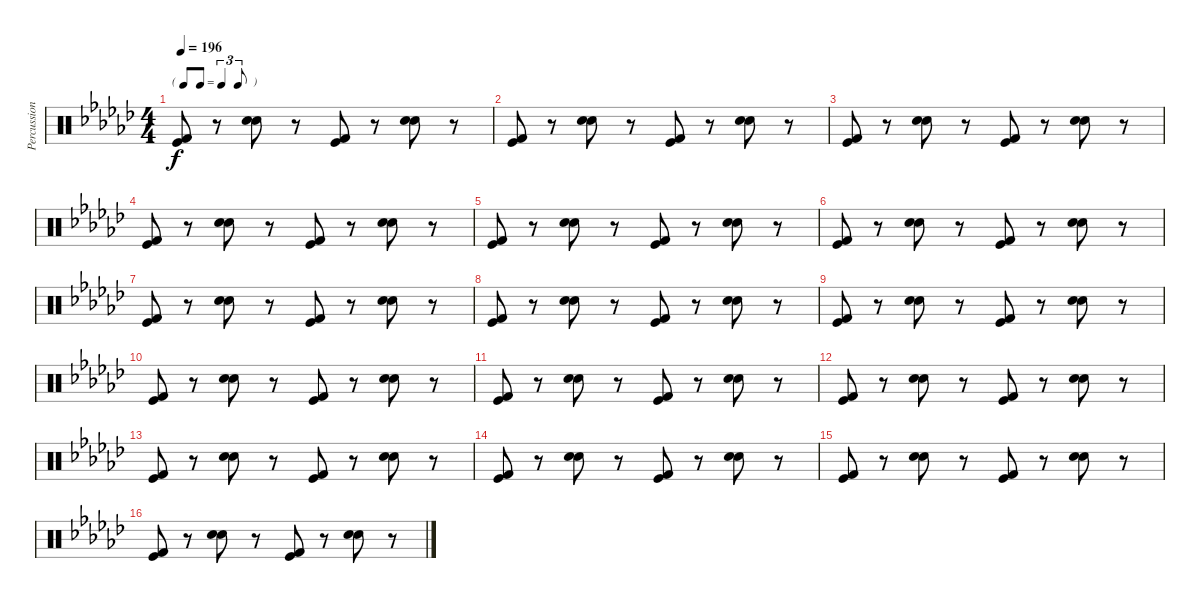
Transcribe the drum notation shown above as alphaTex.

\track ("Percussions" "Percussion") {instrument percussion}
\staff {score}
\articulation defaults
\ts (4 4)
\tf triplet8th
\tempo 196
\clef neutral
\ks gb
("Kick (hit) 2" "Kick (hit)").8{dy f} r.8 ("Snare (hit) 2" "Electric Snare (hit)").8 r.8 ("Kick (hit) 2" "Kick (hit)").8 r.8 ("Snare (hit) 2" "Electric Snare (hit)").8 r.8 |
("Kick (hit) 2" "Kick (hit)").8 r.8 ("Snare (hit) 2" "Electric Snare (hit)").8 r.8 ("Kick (hit) 2" "Kick (hit)").8 r.8 ("Snare (hit) 2" "Electric Snare (hit)").8 r.8 |
("Kick (hit) 2" "Kick (hit)").8 r.8 ("Snare (hit) 2" "Electric Snare (hit)").8 r.8 ("Kick (hit) 2" "Kick (hit)").8 r.8 ("Snare (hit) 2" "Electric Snare (hit)").8 r.8 |
("Kick (hit) 2" "Kick (hit)").8 r.8 ("Snare (hit) 2" "Electric Snare (hit)").8 r.8 ("Kick (hit) 2" "Kick (hit)").8 r.8 ("Snare (hit) 2" "Electric Snare (hit)").8 r.8 |
("Kick (hit) 2" "Kick (hit)").8 r.8 ("Snare (hit) 2" "Electric Snare (hit)").8 r.8 ("Kick (hit) 2" "Kick (hit)").8 r.8 ("Snare (hit) 2" "Electric Snare (hit)").8 r.8 |
("Kick (hit) 2" "Kick (hit)").8 r.8 ("Snare (hit) 2" "Electric Snare (hit)").8 r.8 ("Kick (hit) 2" "Kick (hit)").8 r.8 ("Snare (hit) 2" "Electric Snare (hit)").8 r.8 |
("Kick (hit) 2" "Kick (hit)").8 r.8 ("Snare (hit) 2" "Electric Snare (hit)").8 r.8 ("Kick (hit) 2" "Kick (hit)").8 r.8 ("Snare (hit) 2" "Electric Snare (hit)").8 r.8 |
("Kick (hit) 2" "Kick (hit)").8 r.8 ("Snare (hit) 2" "Electric Snare (hit)").8 r.8 ("Kick (hit) 2" "Kick (hit)").8 r.8 ("Snare (hit) 2" "Electric Snare (hit)").8 r.8 |
("Kick (hit) 2" "Kick (hit)").8 r.8 ("Snare (hit) 2" "Electric Snare (hit)").8 r.8 ("Kick (hit) 2" "Kick (hit)").8 r.8 ("Snare (hit) 2" "Electric Snare (hit)").8 r.8 |
("Kick (hit) 2" "Kick (hit)").8 r.8 ("Snare (hit) 2" "Electric Snare (hit)").8 r.8 ("Kick (hit) 2" "Kick (hit)").8 r.8 ("Snare (hit) 2" "Electric Snare (hit)").8 r.8 |
("Kick (hit) 2" "Kick (hit)").8 r.8 ("Snare (hit) 2" "Electric Snare (hit)").8 r.8 ("Kick (hit) 2" "Kick (hit)").8 r.8 ("Snare (hit) 2" "Electric Snare (hit)").8 r.8 |
("Kick (hit) 2" "Kick (hit)").8 r.8 ("Snare (hit) 2" "Electric Snare (hit)").8 r.8 ("Kick (hit) 2" "Kick (hit)").8 r.8 ("Snare (hit) 2" "Electric Snare (hit)").8 r.8 |
("Kick (hit) 2" "Kick (hit)").8 r.8 ("Snare (hit) 2" "Electric Snare (hit)").8 r.8 ("Kick (hit) 2" "Kick (hit)").8 r.8 ("Snare (hit) 2" "Electric Snare (hit)").8 r.8 |
("Kick (hit) 2" "Kick (hit)").8 r.8 ("Snare (hit) 2" "Electric Snare (hit)").8 r.8 ("Kick (hit) 2" "Kick (hit)").8 r.8 ("Snare (hit) 2" "Electric Snare (hit)").8 r.8 |
("Kick (hit) 2" "Kick (hit)").8 r.8 ("Snare (hit) 2" "Electric Snare (hit)").8 r.8 ("Kick (hit) 2" "Kick (hit)").8 r.8 ("Snare (hit) 2" "Electric Snare (hit)").8 r.8 |
("Kick (hit) 2" "Kick (hit)").8 r.8 ("Snare (hit) 2" "Electric Snare (hit)").8 r.8 ("Kick (hit) 2" "Kick (hit)").8 r.8 ("Snare (hit) 2" "Electric Snare (hit)").8 r.8
